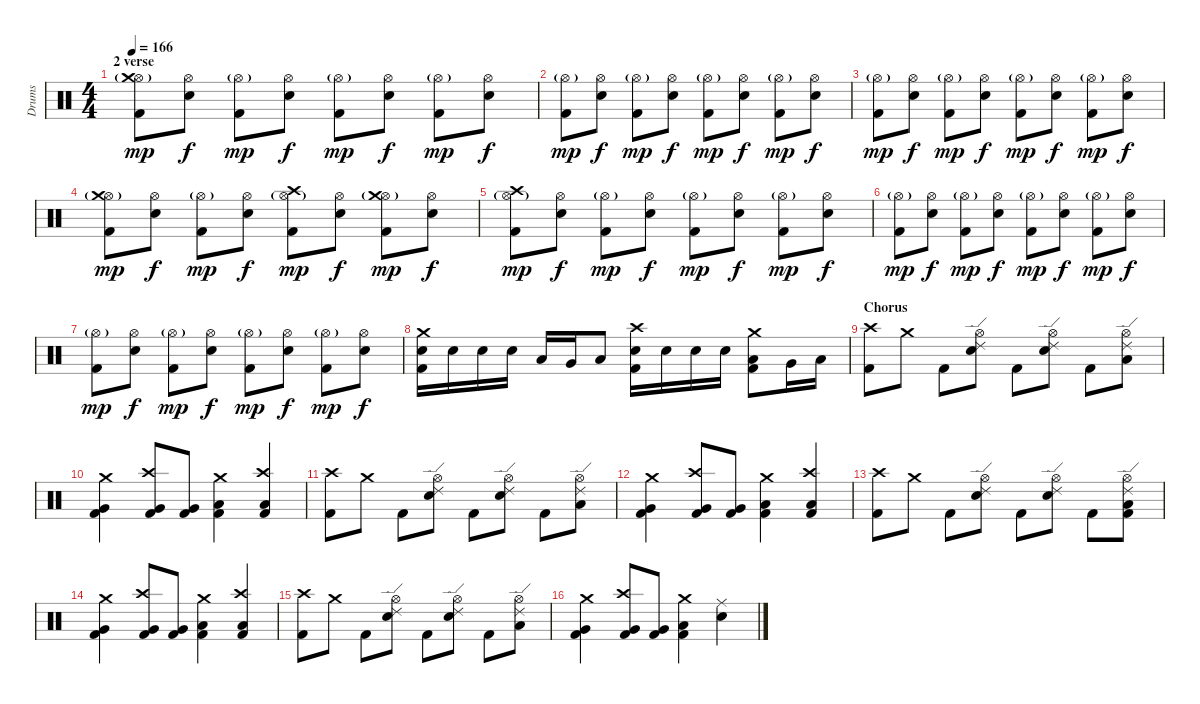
\track ("Drums" "Drums") {instrument percussion}
\staff {score}
\articulation defaults
\ts (4 4)
\section ("" "2 verse")
\tempo 166
\clef neutral
\ks c
("Hi-Hat (open)"{g} "Crash medium (hit)" "Kick (hit) 2").8{dy mp} ("Hi-Hat (open)" "Electric Snare (hit)").8{dy f} ("Hi-Hat (open)"{g} "Kick (hit) 2").8{dy mp} ("Hi-Hat (open)" "Electric Snare (hit)").8{dy f} ("Hi-Hat (open)"{g} "Kick (hit) 2").8{dy mp} ("Hi-Hat (open)" "Electric Snare (hit)").8{dy f} ("Hi-Hat (open)"{g} "Kick (hit) 2").8{dy mp} ("Hi-Hat (open)" "Electric Snare (hit)").8{dy f} |
("Hi-Hat (open)"{g} "Kick (hit) 2").8{dy mp} ("Hi-Hat (open)" "Electric Snare (hit)").8{dy f} ("Hi-Hat (open)"{g} "Kick (hit) 2").8{dy mp} ("Hi-Hat (open)" "Electric Snare (hit)").8{dy f} ("Hi-Hat (open)"{g} "Kick (hit) 2").8{dy mp} ("Hi-Hat (open)" "Electric Snare (hit)").8{dy f} ("Hi-Hat (open)"{g} "Kick (hit) 2").8{dy mp} ("Hi-Hat (open)" "Electric Snare (hit)").8{dy f} |
("Hi-Hat (open)"{g} "Kick (hit) 2").8{dy mp} ("Hi-Hat (open)" "Electric Snare (hit)").8{dy f} ("Hi-Hat (open)"{g} "Kick (hit) 2").8{dy mp} ("Hi-Hat (open)" "Electric Snare (hit)").8{dy f} ("Hi-Hat (open)"{g} "Kick (hit) 2").8{dy mp} ("Hi-Hat (open)" "Electric Snare (hit)").8{dy f} ("Hi-Hat (open)"{g} "Kick (hit) 2").8{dy mp} ("Hi-Hat (open)" "Electric Snare (hit)").8{dy f} |
("Hi-Hat (open)"{g} "Crash medium (hit)" "Kick (hit) 2").8{dy mp} ("Hi-Hat (open)" "Electric Snare (hit)").8{dy f} ("Hi-Hat (open)"{g} "Kick (hit) 2").8{dy mp} ("Hi-Hat (open)" "Electric Snare (hit)").8{dy f} ("Hi-Hat (open)"{g} "Crash high (hit)" "Kick (hit) 2").8{dy mp} ("Hi-Hat (open)" "Electric Snare (hit)").8{dy f} ("Hi-Hat (open)"{g} "Crash medium (hit)" "Kick (hit) 2").8{dy mp} ("Hi-Hat (open)" "Electric Snare (hit)").8{dy f} |
("Hi-Hat (open)"{g} "Crash high (hit)" "Kick (hit) 2").8{dy mp} ("Hi-Hat (open)" "Electric Snare (hit)").8{dy f} ("Hi-Hat (open)"{g} "Kick (hit) 2").8{dy mp} ("Hi-Hat (open)" "Electric Snare (hit)").8{dy f} ("Hi-Hat (open)"{g} "Kick (hit) 2").8{dy mp} ("Hi-Hat (open)" "Electric Snare (hit)").8{dy f} ("Hi-Hat (open)"{g} "Kick (hit) 2").8{dy mp} ("Hi-Hat (open)" "Electric Snare (hit)").8{dy f} |
("Hi-Hat (open)"{g} "Kick (hit) 2").8{dy mp} ("Hi-Hat (open)" "Electric Snare (hit)").8{dy f} ("Hi-Hat (open)"{g} "Kick (hit) 2").8{dy mp} ("Hi-Hat (open)" "Electric Snare (hit)").8{dy f} ("Hi-Hat (open)"{g} "Kick (hit) 2").8{dy mp} ("Hi-Hat (open)" "Electric Snare (hit)").8{dy f} ("Hi-Hat (open)"{g} "Kick (hit) 2").8{dy mp} ("Hi-Hat (open)" "Electric Snare (hit)").8{dy f} |
("Hi-Hat (open)"{g} "Kick (hit) 2").8{dy mp} ("Hi-Hat (open)" "Electric Snare (hit)").8{dy f} ("Hi-Hat (open)"{g} "Kick (hit) 2").8{dy mp} ("Hi-Hat (open)" "Electric Snare (hit)").8{dy f} ("Hi-Hat (open)"{g} "Kick (hit) 2").8{dy mp} ("Hi-Hat (open)" "Electric Snare (hit)").8{dy f} ("Hi-Hat (open)"{g} "Kick (hit) 2").8{dy mp} ("Hi-Hat (open)" "Electric Snare (hit)").8{dy f} |
("Crash medium (hit)" "Electric Snare (hit)" "Kick (hit) 2").16 "Electric Snare (hit)".16 "Electric Snare (hit)".16 "Electric Snare (hit)".16 "Low Tom (hit)".16 "Very Low Tom (hit)".16 "Low Floor Tom (hit)".8 ("Crash high (hit)" "Electric Snare (hit)" "Kick (hit) 2").16 "Electric Snare (hit)".16 "Electric Snare (hit)".16 "Electric Snare (hit)".16 ("Crash medium (hit)" "Low Tom (hit)" "Kick (hit) 2").8 "Very Low Tom (hit)".16 "Low Floor Tom (hit)".16 |
\section ("" "Chorus")
("Crash high (hit)" "Kick (hit) 2").8 "Crash medium (hit)".8 "Kick (hit) 2".8 ("Hi-Hat (open)" "Ride (edge) 2" "Electric Snare (hit)").8 "Kick (hit) 2".8 ("Hi-Hat (open)" "Ride (edge) 2" "Electric Snare (hit)").8 "Kick (hit) 2".8 ("Hi-Hat (open)" "Ride (edge) 2" "Low Tom (hit)").8 |
("Crash medium (hit)" "Very Low Tom (hit)" "Kick (hit) 2").4 ("Crash high (hit)" "Very Low Tom (hit)" "Kick (hit) 2").8 ("Very Low Tom (hit)" "Kick (hit) 2").8 ("Crash medium (hit)" "Low Floor Tom (hit)" "Kick (hit) 2").4 ("Crash high (hit)" "Low Floor Tom (hit)" "Kick (hit) 2").4 |
("Crash high (hit)" "Kick (hit) 2").8 "Crash medium (hit)".8 "Kick (hit) 2".8 ("Hi-Hat (open)" "Ride (edge) 2" "Electric Snare (hit)").8 "Kick (hit) 2".8 ("Hi-Hat (open)" "Ride (edge) 2" "Electric Snare (hit)").8 "Kick (hit) 2".8 ("Hi-Hat (open)" "Ride (edge) 2" "Low Tom (hit)").8 |
("Crash medium (hit)" "Very Low Tom (hit)" "Kick (hit) 2").4 ("Crash high (hit)" "Very Low Tom (hit)" "Kick (hit) 2").8 ("Very Low Tom (hit)" "Kick (hit) 2").8 ("Crash medium (hit)" "Low Floor Tom (hit)" "Kick (hit) 2").4 ("Crash high (hit)" "Low Floor Tom (hit)" "Kick (hit) 2").4 |
("Crash high (hit)" "Kick (hit) 2").8 "Crash medium (hit)".8 "Kick (hit) 2".8 ("Hi-Hat (open)" "Ride (edge) 2" "Electric Snare (hit)").8 "Kick (hit) 2".8 ("Hi-Hat (open)" "Ride (edge) 2" "Electric Snare (hit)").8 "Kick (hit) 2".8 ("Hi-Hat (open)" "Ride (edge) 2" "Low Tom (hit)" "Kick (hit) 2").8 |
("Crash medium (hit)" "Very Low Tom (hit)" "Kick (hit) 2").4 ("Crash high (hit)" "Very Low Tom (hit)" "Kick (hit) 2").8 ("Very Low Tom (hit)" "Kick (hit) 2").8 ("Crash medium (hit)" "Low Floor Tom (hit)" "Kick (hit) 2").4 ("Crash high (hit)" "Low Floor Tom (hit)" "Kick (hit) 2").4 |
("Crash high (hit)" "Kick (hit) 2").8 "Crash medium (hit)".8 "Kick (hit) 2".8 ("Hi-Hat (open)" "Ride (edge) 2" "Electric Snare (hit)").8 "Kick (hit) 2".8 ("Hi-Hat (open)" "Ride (edge) 2" "Electric Snare (hit)").8 "Kick (hit) 2".8 ("Hi-Hat (open)" "Ride (edge) 2" "Low Tom (hit)").8 |
("Crash medium (hit)" "Very Low Tom (hit)" "Kick (hit) 2").4 ("Crash high (hit)" "Very Low Tom (hit)" "Kick (hit) 2").8 ("Very Low Tom (hit)" "Kick (hit) 2").8 ("Crash medium (hit)" "Low Floor Tom (hit)" "Kick (hit) 2").4 ("Ride (middle)" "Electric Snare (hit)").4
